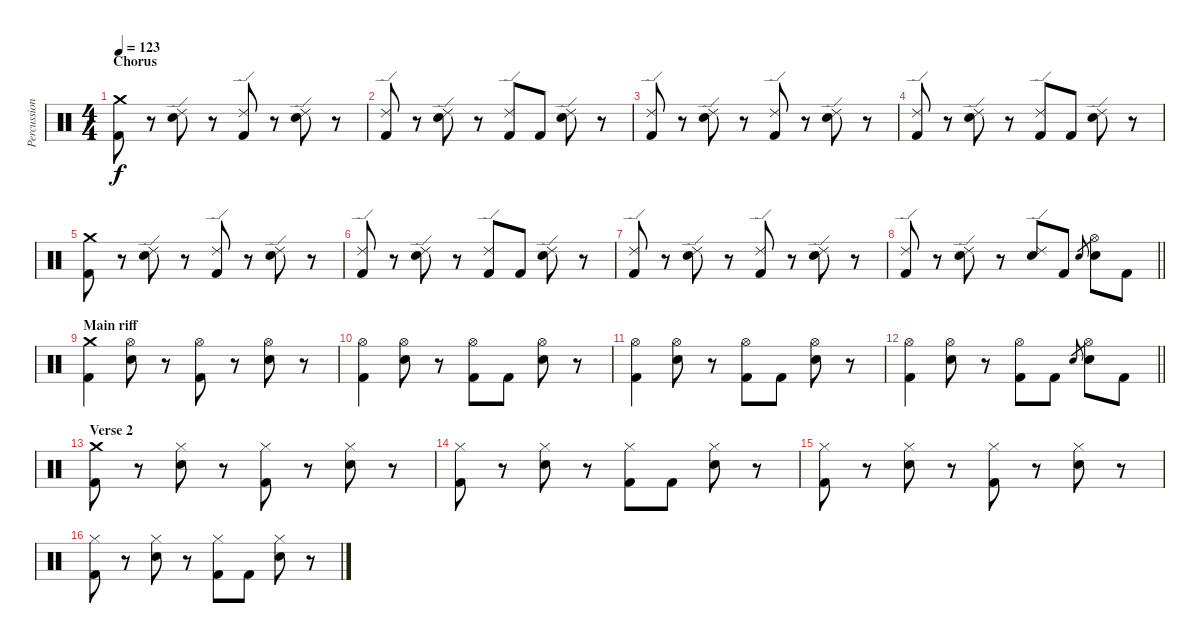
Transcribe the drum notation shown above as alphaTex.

\track ("Percussion" "Percussion") {instrument percussion}
\staff {score}
\articulation defaults
\ts (4 4)
\section ("" "Chorus")
\tempo 123
\clef neutral
\ks c
("Crash medium (hit)" "Kick (hit) 2").8{dy f} r.8 ("Ride (edge) 2" "Electric Snare (hit)").8 r.8 ("Ride (edge) 2" "Kick (hit) 2").8 r.8 ("Ride (edge) 2" "Electric Snare (hit)").8 r.8 |
("Ride (edge) 2" "Kick (hit) 2").8 r.8 ("Ride (edge) 2" "Electric Snare (hit)").8 r.8 ("Ride (edge) 2" "Kick (hit) 2").8 "Kick (hit) 2".8 ("Ride (edge) 2" "Electric Snare (hit)").8 r.8 |
("Ride (edge) 2" "Kick (hit) 2").8 r.8 ("Ride (edge) 2" "Electric Snare (hit)").8 r.8 ("Ride (edge) 2" "Kick (hit) 2").8 r.8 ("Ride (edge) 2" "Electric Snare (hit)").8 r.8 |
("Ride (edge) 2" "Kick (hit) 2").8 r.8 ("Ride (edge) 2" "Electric Snare (hit)").8 r.8 ("Ride (edge) 2" "Kick (hit) 2").8 "Kick (hit) 2".8 ("Ride (edge) 2" "Electric Snare (hit)").8 r.8 |
("Crash medium (hit)" "Kick (hit) 2").8 r.8 ("Ride (edge) 2" "Electric Snare (hit)").8 r.8 ("Ride (edge) 2" "Kick (hit) 2").8 r.8 ("Ride (edge) 2" "Electric Snare (hit)").8 r.8 |
("Ride (edge) 2" "Kick (hit) 2").8 r.8 ("Ride (edge) 2" "Electric Snare (hit)").8 r.8 ("Ride (edge) 2" "Kick (hit) 2").8 "Kick (hit) 2".8 ("Ride (edge) 2" "Electric Snare (hit)").8 r.8 |
("Ride (edge) 2" "Kick (hit) 2").8 r.8 ("Ride (edge) 2" "Electric Snare (hit)").8 r.8 ("Ride (edge) 2" "Kick (hit) 2").8 r.8 ("Ride (edge) 2" "Electric Snare (hit)").8 r.8 |
\barLineRight lightlight
("Ride (edge) 2" "Kick (hit) 2").8 r.8 ("Ride (edge) 2" "Electric Snare (hit)").8 r.8 ("Ride (edge) 2" "Electric Snare (hit)").8 "Kick (hit) 2".8 "Electric Snare (hit)".8{gr} ("Hi-Hat (open)" "Electric Snare (hit)").8 "Kick (hit) 2".8 |
\section ("" "Main riff")
("Crash medium (hit)" "Kick (hit) 2").4 ("Hi-Hat (open)" "Electric Snare (hit)").8 r.8 ("Hi-Hat (open)" "Kick (hit) 2").8 r.8 ("Hi-Hat (open)" "Electric Snare (hit)").8 r.8 |
("Hi-Hat (open)" "Kick (hit) 2").4 ("Hi-Hat (open)" "Electric Snare (hit)").8 r.8 ("Hi-Hat (open)" "Kick (hit) 2").8 "Kick (hit) 2".8 ("Hi-Hat (open)" "Electric Snare (hit)").8 r.8 |
("Hi-Hat (open)" "Kick (hit) 2").4 ("Hi-Hat (open)" "Electric Snare (hit)").8 r.8 ("Hi-Hat (open)" "Kick (hit) 2").8 "Kick (hit) 2".8 ("Hi-Hat (open)" "Electric Snare (hit)").8 r.8 |
\barLineRight lightlight
("Hi-Hat (open)" "Kick (hit) 2").4 ("Hi-Hat (open)" "Electric Snare (hit)").8 r.8 ("Hi-Hat (open)" "Kick (hit) 2").8 "Kick (hit) 2".8 "Electric Snare (hit)".8{gr} ("Hi-Hat (open)" "Electric Snare (hit)").8 "Kick (hit) 2".8 |
\section ("" "Verse 2")
("Crash medium (hit)" "Kick (hit) 2").8 r.8 ("Hi-Hat (closed)" "Electric Snare (hit)").8 r.8 ("Hi-Hat (closed)" "Kick (hit) 2").8 r.8 ("Hi-Hat (closed)" "Electric Snare (hit)").8 r.8 |
("Hi-Hat (closed)" "Kick (hit) 2").8 r.8 ("Hi-Hat (closed)" "Electric Snare (hit)").8 r.8 ("Hi-Hat (closed)" "Kick (hit) 2").8 "Kick (hit) 2".8 ("Hi-Hat (closed)" "Electric Snare (hit)").8 r.8 |
("Hi-Hat (closed)" "Kick (hit) 2").8 r.8 ("Hi-Hat (closed)" "Electric Snare (hit)").8 r.8 ("Hi-Hat (closed)" "Kick (hit) 2").8 r.8 ("Hi-Hat (closed)" "Electric Snare (hit)").8 r.8 |
("Hi-Hat (closed)" "Kick (hit) 2").8 r.8 ("Hi-Hat (closed)" "Electric Snare (hit)").8 r.8 ("Hi-Hat (closed)" "Kick (hit) 2").8 "Kick (hit) 2".8 ("Hi-Hat (closed)" "Electric Snare (hit)").8 r.8
